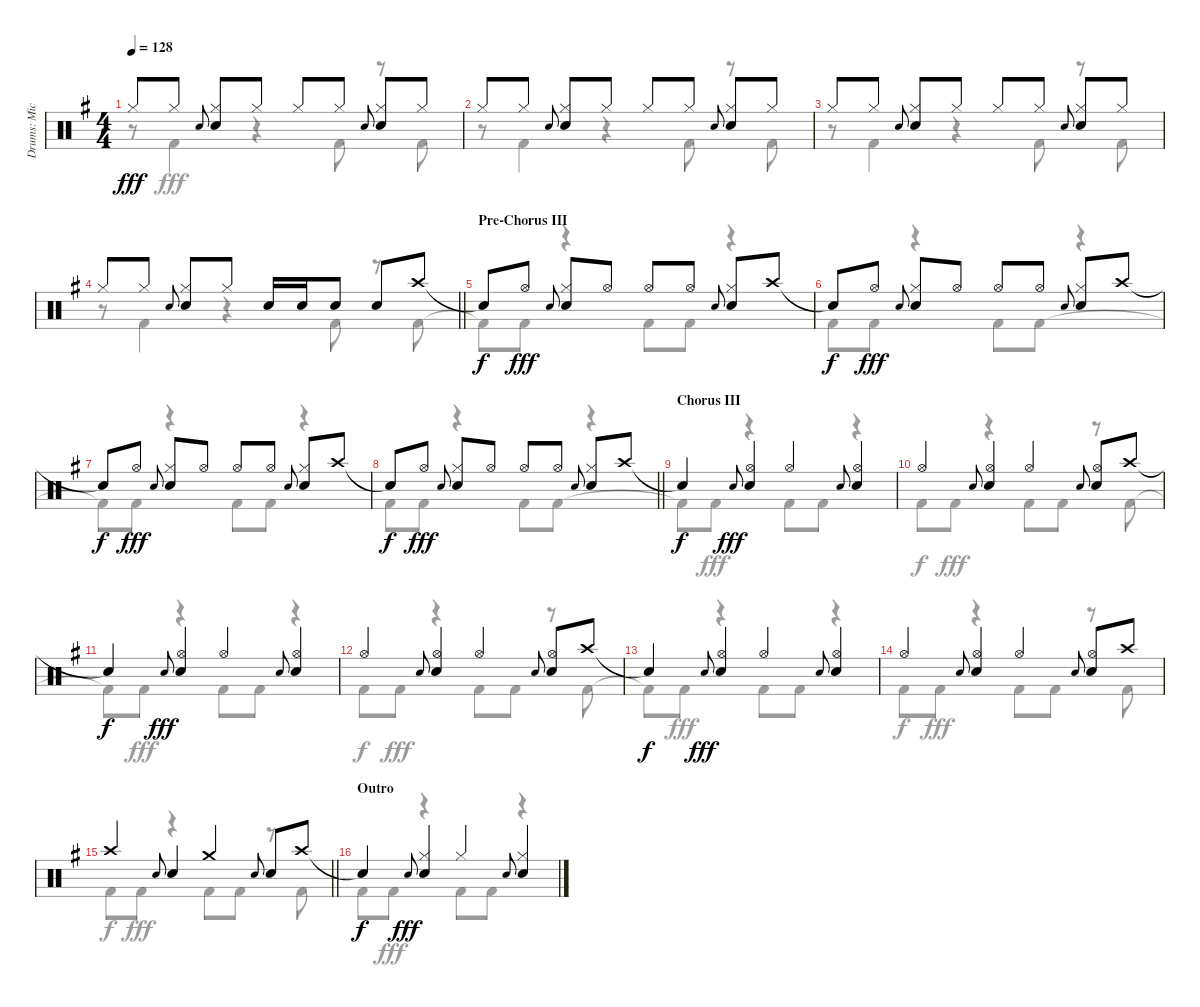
\track ("Drums: Mick" "Drums: Mic") {instrument percussion}
\staff {score}
\articulation defaults
\voice
\ts (4 4)
\tempo 128
\clef neutral
\ks g "Hi-Hat (closed)".8{dy fff} "Hi-Hat (closed)".8 "Electric Snare (hit)".8{gr onbeat beam merge}
("Hi-Hat (closed)" "Snare (hit) 2").8 "Hi-Hat (closed)".8 "Hi-Hat (closed)".8 "Hi-Hat (closed)".8 "Electric Snare (hit)".8{gr onbeat beam merge} ("Hi-Hat (closed)" "Snare (hit) 2").8 "Hi-Hat (closed)".8 |
"Hi-Hat (closed)".8 "Hi-Hat (closed)".8 "Electric Snare (hit)".8{gr onbeat beam merge} ("Hi-Hat (closed)" "Snare (hit) 2").8 "Hi-Hat (closed)".8 "Hi-Hat (closed)".8 "Hi-Hat (closed)".8 "Electric Snare (hit)".8{gr onbeat beam merge} ("Hi-Hat (closed)" "Snare (hit) 2").8 "Hi-Hat (closed)".8 |
"Hi-Hat (closed)".8 "Hi-Hat (closed)".8 "Electric Snare (hit)".8{gr onbeat beam merge} ("Hi-Hat (closed)" "Snare (hit) 2").8 "Hi-Hat (closed)".8 "Hi-Hat (closed)".8 "Hi-Hat (closed)".8 "Electric Snare (hit)".8{gr onbeat beam merge} ("Hi-Hat (closed)" "Snare (hit) 2").8 "Hi-Hat (closed)".8 |
\barLineRight lightlight "Hi-Hat (closed)".8 "Hi-Hat (closed)".8 "Electric Snare (hit)".8{gr onbeat beam merge}
("Hi-Hat (closed)" "Snare (hit) 2").8 "Hi-Hat (closed)".8 "Snare (hit) 2".16 "Snare (hit) 2".16 "Snare (hit) 2".8 "Snare (hit) 2".8 "Crash high (hit)".8 |
\section ("" "Pre-Chorus III")
"Snare (hit)"{t}.8{dy f} "Hi-Hat (open)".8{dy fff} "Electric Snare (hit)".8{gr onbeat beam merge} ("Hi-Hat (closed)" "Snare (hit) 2").8 "Hi-Hat (open)".8 "Hi-Hat (open)".8 "Hi-Hat (open)".8 "Electric Snare (hit)".8{gr onbeat beam merge} ("Hi-Hat (closed)" "Snare (hit) 2").8 "Crash high (hit)".8 |
"Snare (hit)"{t}.8{dy f} "Hi-Hat (open)".8{dy fff} "Electric Snare (hit)".8{gr onbeat beam merge} ("Hi-Hat (closed)" "Snare (hit) 2").8 "Hi-Hat (open)".8 "Hi-Hat (open)".8 "Hi-Hat (open)".8 "Electric Snare (hit)".8{gr onbeat beam merge} ("Hi-Hat (closed)" "Snare (hit) 2").8 "Crash high (hit)".8 |
"Snare (hit)"{t}.8{dy f} "Hi-Hat (open)".8{dy fff} "Electric Snare (hit)".8{gr onbeat beam merge} ("Hi-Hat (closed)" "Snare (hit) 2").8 "Hi-Hat (open)".8 "Hi-Hat (open)".8 "Hi-Hat (open)".8 "Electric Snare (hit)".8{gr onbeat beam merge} ("Hi-Hat (closed)" "Snare (hit) 2").8 "Crash high (hit)".8 |
\barLineRight lightlight "Snare (hit)"{t}.8{dy f} "Hi-Hat (open)".8{dy fff} "Electric Snare (hit)".8{gr onbeat beam merge}
("Hi-Hat (closed)" "Snare (hit) 2").8 "Hi-Hat (open)".8 "Hi-Hat (open)".8 "Hi-Hat (open)".8 "Electric Snare (hit)".8{gr onbeat beam merge} ("Hi-Hat (closed)" "Snare (hit) 2").8 "Crash high (hit)".8 |
\section ("" "Chorus III")
"Snare (hit)"{t}.4{dy f} "Electric Snare (hit)".8{gr onbeat dy fff} ("Hi-Hat (open)" "Snare (hit) 2").4 "Hi-Hat (open)".4 "Electric Snare (hit)".8{gr onbeat} ("Hi-Hat (open)" "Snare (hit) 2").4 |
"Hi-Hat (open)".4 "Electric Snare (hit)".8{gr onbeat} ("Hi-Hat (open)" "Snare (hit) 2").4 "Hi-Hat (open)".4 "Electric Snare (hit)".8{gr onbeat} ("Hi-Hat (open)" "Snare (hit) 2").8 "Crash high (hit)".8 |
"Snare (hit)"{t}.4{dy f} "Electric Snare (hit)".8{gr onbeat dy fff} ("Hi-Hat (open)" "Snare (hit) 2").4 "Hi-Hat (open)".4 "Electric Snare (hit)".8{gr onbeat} ("Hi-Hat (open)" "Snare (hit) 2").4 |
"Hi-Hat (open)".4 "Electric Snare (hit)".8{gr onbeat} ("Hi-Hat (open)" "Snare (hit) 2").4 "Hi-Hat (open)".4 "Electric Snare (hit)".8{gr onbeat} ("Hi-Hat (open)" "Snare (hit) 2").8 "Crash high (hit)".8 |
"Snare (hit)"{t}.4{dy f} "Electric Snare (hit)".8{gr onbeat dy fff} ("Hi-Hat (open)" "Snare (hit) 2").4 "Hi-Hat (open)".4 "Electric Snare (hit)".8{gr onbeat} ("Hi-Hat (open)" "Snare (hit) 2").4 |
"Hi-Hat (open)".4 "Electric Snare (hit)".8{gr onbeat} ("Hi-Hat (open)" "Snare (hit) 2").4 "Hi-Hat (open)".4 "Electric Snare (hit)".8{gr onbeat} ("Hi-Hat (open)" "Snare (hit) 2").8 "Crash high (hit)".8 |
\barLineRight lightlight "Crash high (hit)".4 "Electric Snare (hit)".8{gr onbeat} "Snare (hit) 2".4 "Crash medium (hit)".4 "Electric Snare (hit)".8{gr onbeat} "Snare (hit) 2".8 "Crash high (hit)".8
|
\section ("" "Outro")
"Snare (hit)"{t}.4{dy f} "Electric Snare (hit)".8{gr onbeat dy fff} ("Hi-Hat (closed)" "Snare (hit) 2").4 "Hi-Hat (closed)".4 "Electric Snare (hit)".8{gr onbeat} ("Hi-Hat (closed)" "Snare (hit) 2").4
\voice
\clef neutral
\ottava regular
\simile none
\ks g
r.8{dy fff} "Kick (hit) 2".4 r.4 "Kick (hit) 2".8 r.8 "Kick (hit) 2".8 |
r.8 "Kick (hit) 2".4 r.4 "Kick (hit) 2".8 r.8 "Kick (hit) 2".8 |
r.8 "Kick (hit) 2".4 r.4 "Kick (hit) 2".8 r.8 "Kick (hit) 2".8 |
\barLineRight lightlight
r.8 "Kick (hit) 2".4 r.4 "Kick (hit) 2".8 r.8 "Kick (hit) 2".8 |
"Kick (hit) 2"{t}.8{dy f} "Kick (hit) 2".8{dy fff} r.4 "Kick (hit) 2".8 "Kick (hit) 2".8 r.4 |
"Kick (hit) 2".8{dy f} "Kick (hit) 2".8{dy fff} r.4 "Kick (hit) 2".8 "Kick (hit) 2".8 r.4 |
"Kick (hit) 2"{t}.8{dy f} "Kick (hit) 2".8{dy fff} r.4 "Kick (hit) 2".8 "Kick (hit) 2".8 r.4 |
\barLineRight lightlight "Kick (hit) 2".8{dy f} "Kick (hit) 2".8{dy fff}
r.4 "Kick (hit) 2".8 "Kick (hit) 2".8 r.4 |
"Kick (hit) 2"{t}.8{dy f} "Kick (hit) 2".8{dy fff} r.4 "Kick (hit) 2".8 "Kick (hit) 2".8 r.4 |
"Kick (hit) 2".8{dy f} "Kick (hit) 2".8{dy fff} r.4 "Kick (hit) 2".8 "Kick (hit) 2".8 r.8 "Kick (hit) 2".8 |
"Kick (hit) 2"{t}.8{dy f} "Kick (hit) 2".8{dy fff} r.4 "Kick (hit) 2".8 "Kick (hit) 2".8 r.4 |
"Kick (hit) 2".8{dy f} "Kick (hit) 2".8{dy fff} r.4 "Kick (hit) 2".8 "Kick (hit) 2".8 r.8 "Kick (hit) 2".8 |
"Kick (hit) 2"{t}.8{dy f} "Kick (hit) 2".8{dy fff} r.4 "Kick (hit) 2".8 "Kick (hit) 2".8 r.4 |
"Kick (hit) 2".8{dy f} "Kick (hit) 2".8{dy fff} r.4 "Kick (hit) 2".8 "Kick (hit) 2".8 r.8 "Kick (hit) 2".8 |
\barLineRight lightlight "Kick (hit) 2".8{dy f} "Kick (hit) 2".8{dy fff}
r.4 "Kick (hit) 2".8 "Kick (hit) 2".8 r.8 "Kick (hit) 2".8 |
"Kick (hit) 2".8{dy f} "Kick (hit) 2".8{dy fff} r.4 "Kick (hit) 2".8 "Kick (hit) 2".8 r.4
